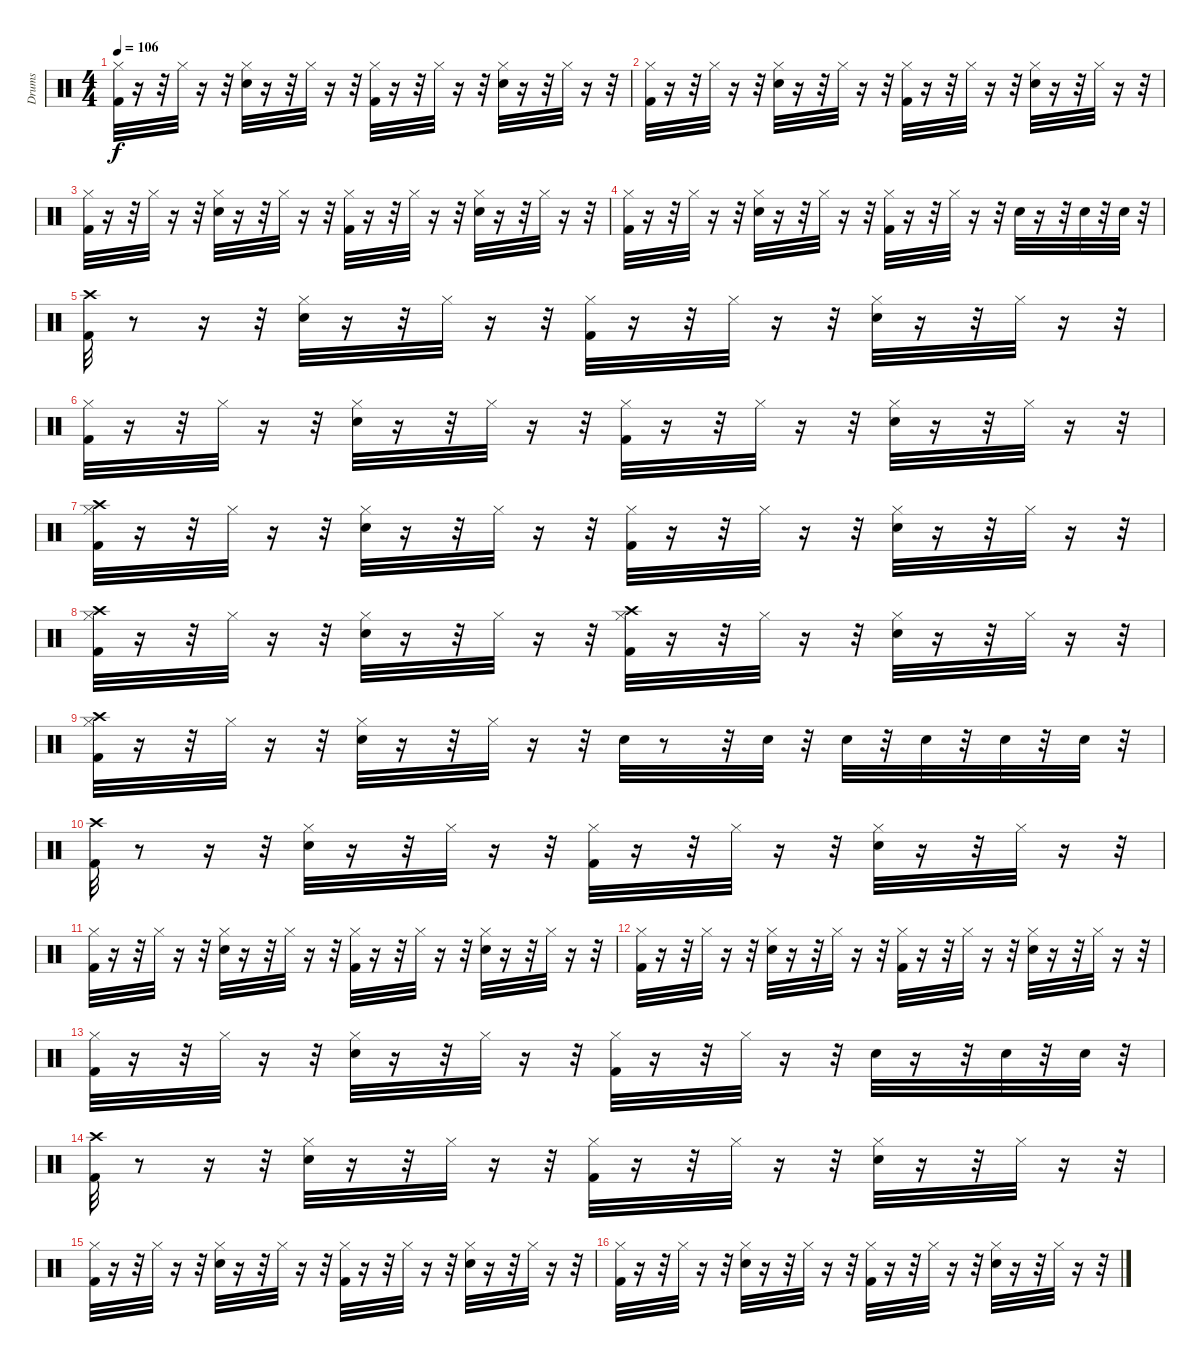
\track ("Drums" "Drums") {instrument percussion}
\staff {score}
\articulation defaults
\ts (4 4)
\tempo 106
\clef neutral
\ks c
("Hi-Hat (closed)" "Kick (hit) 2").32{dy f} r.16 r.32 "Hi-Hat (closed)".32 r.16 r.32 ("Hi-Hat (closed)" "Snare (hit) 2").32 r.16 r.32 "Hi-Hat (closed)".32 r.16 r.32 ("Hi-Hat (closed)" "Kick (hit) 2").32 r.16 r.32 "Hi-Hat (closed)".32 r.16 r.32 ("Hi-Hat (closed)" "Snare (hit) 2").32 r.16 r.32 "Hi-Hat (closed)".32 r.16 r.32 |
("Hi-Hat (closed)" "Kick (hit) 2").32 r.16 r.32 "Hi-Hat (closed)".32 r.16 r.32 ("Hi-Hat (closed)" "Snare (hit) 2").32 r.16 r.32 "Hi-Hat (closed)".32 r.16 r.32 ("Hi-Hat (closed)" "Kick (hit) 2").32 r.16 r.32 "Hi-Hat (closed)".32 r.16 r.32 ("Hi-Hat (closed)" "Snare (hit) 2").32 r.16 r.32 "Hi-Hat (closed)".32 r.16 r.32 |
("Hi-Hat (closed)" "Kick (hit) 2").32 r.16 r.32 "Hi-Hat (closed)".32 r.16 r.32 ("Hi-Hat (closed)" "Snare (hit) 2").32 r.16 r.32 "Hi-Hat (closed)".32 r.16 r.32 ("Hi-Hat (closed)" "Kick (hit) 2").32 r.16 r.32 "Hi-Hat (closed)".32 r.16 r.32 ("Hi-Hat (closed)" "Snare (hit) 2").32 r.16 r.32 "Hi-Hat (closed)".32 r.16 r.32 |
("Hi-Hat (closed)" "Kick (hit) 2").32 r.16 r.32 "Hi-Hat (closed)".32 r.16 r.32 ("Hi-Hat (closed)" "Snare (hit) 2").32 r.16 r.32 "Hi-Hat (closed)".32 r.16 r.32 ("Hi-Hat (closed)" "Kick (hit) 2").32 r.16 r.32 "Hi-Hat (closed)".32 r.16 r.32 "Snare (hit) 2".32 r.16 r.32 "Snare (hit) 2".32 r.32 "Snare (hit) 2".32 r.32 |
("Crash high (hit)" "Kick (hit) 2").32 r.8 r.16 r.32 ("Hi-Hat (closed)" "Snare (hit) 2").32 r.16 r.32 "Hi-Hat (closed)".32 r.16 r.32 ("Hi-Hat (closed)" "Kick (hit) 2").32 r.16 r.32 "Hi-Hat (closed)".32 r.16 r.32 ("Hi-Hat (closed)" "Snare (hit) 2").32 r.16 r.32 "Hi-Hat (closed)".32 r.16 r.32 |
("Hi-Hat (closed)" "Kick (hit) 2").32 r.16 r.32 "Hi-Hat (closed)".32 r.16 r.32 ("Hi-Hat (closed)" "Snare (hit) 2").32 r.16 r.32 "Hi-Hat (closed)".32 r.16 r.32 ("Hi-Hat (closed)" "Kick (hit) 2").32 r.16 r.32 "Hi-Hat (closed)".32 r.16 r.32 ("Hi-Hat (closed)" "Snare (hit) 2").32 r.16 r.32 "Hi-Hat (closed)".32 r.16 r.32 |
("Crash high (hit)" "Hi-Hat (closed)" "Kick (hit) 2").32 r.16 r.32 "Hi-Hat (closed)".32 r.16 r.32 ("Hi-Hat (closed)" "Snare (hit) 2").32 r.16 r.32 "Hi-Hat (closed)".32 r.16 r.32 ("Hi-Hat (closed)" "Kick (hit) 2").32 r.16 r.32 "Hi-Hat (closed)".32 r.16 r.32 ("Hi-Hat (closed)" "Snare (hit) 2").32 r.16 r.32 "Hi-Hat (closed)".32 r.16 r.32 |
("Crash high (hit)" "Hi-Hat (closed)" "Kick (hit) 2").32 r.16 r.32 "Hi-Hat (closed)".32 r.16 r.32 ("Hi-Hat (closed)" "Snare (hit) 2").32 r.16 r.32 "Hi-Hat (closed)".32 r.16 r.32 ("Crash high (hit)" "Hi-Hat (closed)" "Kick (hit) 2").32 r.16 r.32 "Hi-Hat (closed)".32 r.16 r.32 ("Hi-Hat (closed)" "Snare (hit) 2").32 r.16 r.32 "Hi-Hat (closed)".32 r.16 r.32 |
("Crash high (hit)" "Hi-Hat (closed)" "Kick (hit) 2").32 r.16 r.32 "Hi-Hat (closed)".32 r.16 r.32 ("Hi-Hat (closed)" "Snare (hit) 2").32 r.16 r.32 "Hi-Hat (closed)".32 r.16 r.32 "Snare (hit) 2".32 r.8 r.32 "Snare (hit) 2".32 r.32 "Snare (hit) 2".32 r.32 "Snare (hit) 2".32 r.32 "Snare (hit) 2".32 r.32 "Snare (hit) 2".32 r.32 |
("Crash high (hit)" "Kick (hit) 2").32 r.8 r.16 r.32 ("Hi-Hat (closed)" "Snare (hit) 2").32 r.16 r.32 "Hi-Hat (closed)".32 r.16 r.32 ("Hi-Hat (closed)" "Kick (hit) 2").32 r.16 r.32 "Hi-Hat (closed)".32 r.16 r.32 ("Hi-Hat (closed)" "Snare (hit) 2").32 r.16 r.32 "Hi-Hat (closed)".32 r.16 r.32 |
("Hi-Hat (closed)" "Kick (hit) 2").32 r.16 r.32 "Hi-Hat (closed)".32 r.16 r.32 ("Hi-Hat (closed)" "Snare (hit) 2").32 r.16 r.32 "Hi-Hat (closed)".32 r.16 r.32 ("Hi-Hat (closed)" "Kick (hit) 2").32 r.16 r.32 "Hi-Hat (closed)".32 r.16 r.32 ("Hi-Hat (closed)" "Snare (hit) 2").32 r.16 r.32 "Hi-Hat (closed)".32 r.16 r.32 |
("Hi-Hat (closed)" "Kick (hit) 2").32 r.16 r.32 "Hi-Hat (closed)".32 r.16 r.32 ("Hi-Hat (closed)" "Snare (hit) 2").32 r.16 r.32 "Hi-Hat (closed)".32 r.16 r.32 ("Hi-Hat (closed)" "Kick (hit) 2").32 r.16 r.32 "Hi-Hat (closed)".32 r.16 r.32 ("Hi-Hat (closed)" "Snare (hit) 2").32 r.16 r.32 "Hi-Hat (closed)".32 r.16 r.32 |
("Hi-Hat (closed)" "Kick (hit) 2").32 r.16 r.32 "Hi-Hat (closed)".32 r.16 r.32 ("Hi-Hat (closed)" "Snare (hit) 2").32 r.16 r.32 "Hi-Hat (closed)".32 r.16 r.32 ("Hi-Hat (closed)" "Kick (hit) 2").32 r.16 r.32 "Hi-Hat (closed)".32 r.16 r.32 "Snare (hit) 2".32 r.16 r.32 "Snare (hit) 2".32 r.32 "Snare (hit) 2".32 r.32 |
("Crash high (hit)" "Kick (hit) 2").32 r.8 r.16 r.32 ("Hi-Hat (closed)" "Snare (hit) 2").32 r.16 r.32 "Hi-Hat (closed)".32 r.16 r.32 ("Hi-Hat (closed)" "Kick (hit) 2").32 r.16 r.32 "Hi-Hat (closed)".32 r.16 r.32 ("Hi-Hat (closed)" "Snare (hit) 2").32 r.16 r.32 "Hi-Hat (closed)".32 r.16 r.32 |
("Hi-Hat (closed)" "Kick (hit) 2").32 r.16 r.32 "Hi-Hat (closed)".32 r.16 r.32 ("Hi-Hat (closed)" "Snare (hit) 2").32 r.16 r.32 "Hi-Hat (closed)".32 r.16 r.32 ("Hi-Hat (closed)" "Kick (hit) 2").32 r.16 r.32 "Hi-Hat (closed)".32 r.16 r.32 ("Hi-Hat (closed)" "Snare (hit) 2").32 r.16 r.32 "Hi-Hat (closed)".32 r.16 r.32 |
("Hi-Hat (closed)" "Kick (hit) 2").32 r.16 r.32 "Hi-Hat (closed)".32 r.16 r.32 ("Hi-Hat (closed)" "Snare (hit) 2").32 r.16 r.32 "Hi-Hat (closed)".32 r.16 r.32 ("Hi-Hat (closed)" "Kick (hit) 2").32 r.16 r.32 "Hi-Hat (closed)".32 r.16 r.32 ("Hi-Hat (closed)" "Snare (hit) 2").32 r.16 r.32 "Hi-Hat (closed)".32 r.16 r.32
